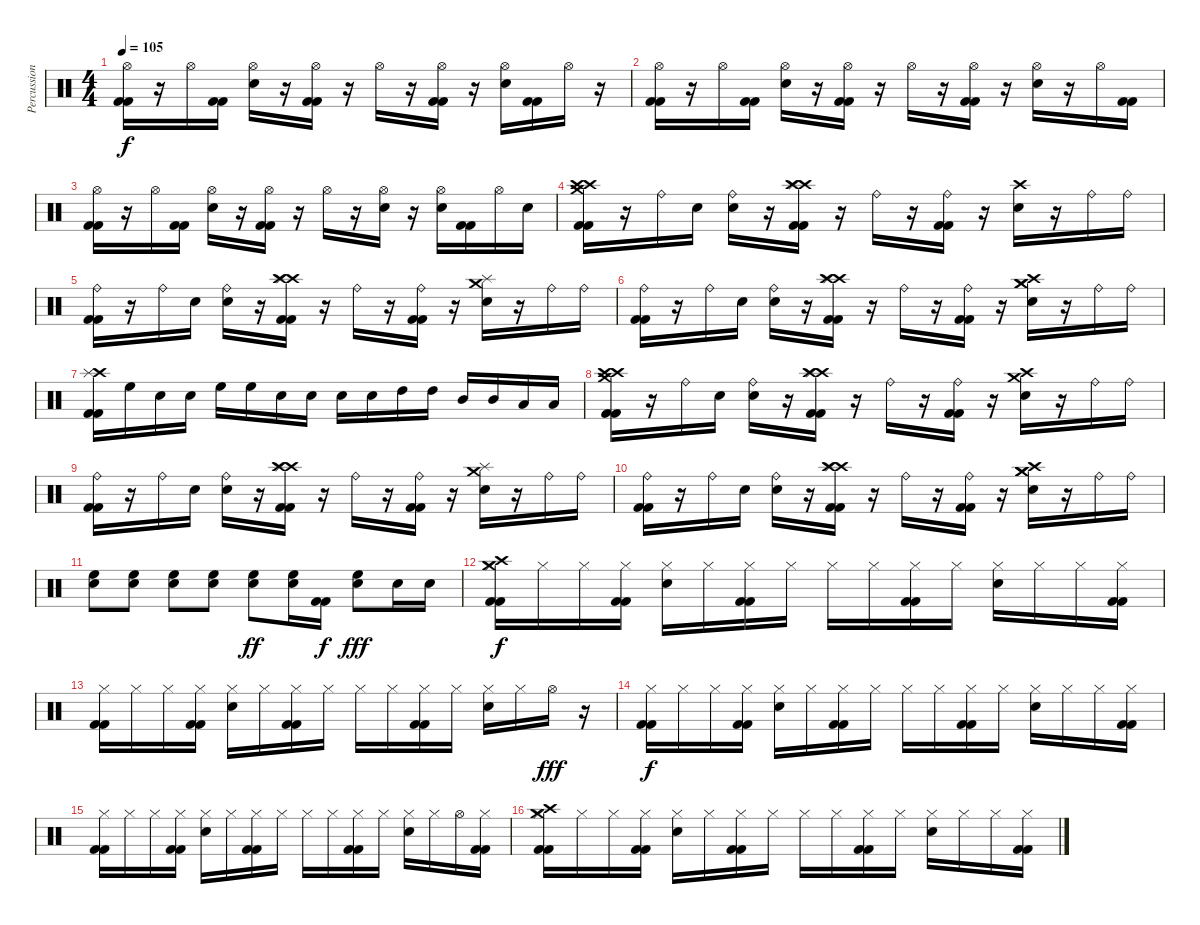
\track ("Percussion" "Percussion") {instrument percussion}
\staff {score}
\articulation defaults
\ts (4 4)
\tempo 105
\clef neutral
\ks c
("Hi-Hat (open)" "Kick (hit) 2" "Kick (hit) 2").16{dy f} r.16 "Hi-Hat (open)".16 ("Kick (hit) 2" "Kick (hit) 2").16 ("Hi-Hat (open)" "Electric Snare (hit)").16 r.16 ("Hi-Hat (open)" "Kick (hit) 2" "Kick (hit) 2").16 r.16 "Hi-Hat (open)".16 r.16 ("Hi-Hat (open)" "Kick (hit) 2" "Kick (hit) 2").16 r.16 ("Hi-Hat (open)" "Electric Snare (hit)").16 ("Kick (hit) 2" "Kick (hit) 2").16 "Hi-Hat (open)".16 r.16 |
("Hi-Hat (open)" "Kick (hit) 2" "Kick (hit) 2").16 r.16 "Hi-Hat (open)".16 ("Kick (hit) 2" "Kick (hit) 2").16 ("Hi-Hat (open)" "Electric Snare (hit)").16 r.16 ("Hi-Hat (open)" "Kick (hit) 2" "Kick (hit) 2").16 r.16 "Hi-Hat (open)".16 r.16 ("Hi-Hat (open)" "Kick (hit) 2" "Kick (hit) 2").16 r.16 ("Hi-Hat (open)" "Electric Snare (hit)").16 r.16 "Hi-Hat (open)".16 ("Kick (hit) 2" "Kick (hit) 2").16 |
("Hi-Hat (open)" "Kick (hit) 2" "Kick (hit) 2").16 r.16 "Hi-Hat (open)".16 ("Kick (hit) 2" "Kick (hit) 2").16 ("Hi-Hat (open)" "Electric Snare (hit)").16 r.16 ("Hi-Hat (open)" "Kick (hit) 2" "Kick (hit) 2").16 r.16 "Hi-Hat (open)".16 r.16 ("Hi-Hat (open)" "Electric Snare (hit)").16 r.16 ("Hi-Hat (open)" "Electric Snare (hit)").16 ("Kick (hit) 2" "Kick (hit) 2").16 "Hi-Hat (open)".16 "Electric Snare (hit)".16 |
("Crash high (hit)" "Crash high (hit)" "Crash medium (hit)" "Kick (hit) 2" "Kick (hit) 2").16 r.16 "Ride (bell)".16 "Electric Snare (hit)".16 ("Ride (bell)" "Electric Snare (hit)").16 r.16 ("Crash high (hit)" "Crash high (hit)" "Splash (hit)" "Kick (hit) 2" "Kick (hit) 2").16 r.16 "Ride (bell)".16 r.16 ("Ride (bell)" "Kick (hit) 2" "Kick (hit) 2").16 r.16 ("Crash high (hit)" "Electric Snare (hit)").16 r.16 "Ride (bell)".16 "Ride (bell)".16 |
("Ride (bell)" "Kick (hit) 2" "Kick (hit) 2").16 r.16 "Ride (bell)".16 "Electric Snare (hit)".16 ("Ride (bell)" "Electric Snare (hit)").16 r.16 ("Crash high (hit)" "Crash high (hit)" "Splash (hit)" "Kick (hit) 2" "Kick (hit) 2").16 r.16 "Ride (bell)".16 r.16 ("Ride (bell)" "Kick (hit) 2" "Kick (hit) 2").16 r.16 ("Crash medium (hit)" "Splash (hit)" "Electric Snare (hit)").16 r.16 "Ride (bell)".16 "Ride (bell)".16 |
("Ride (bell)" "Kick (hit) 2" "Kick (hit) 2").16 r.16 "Ride (bell)".16 "Electric Snare (hit)".16 ("Ride (bell)" "Electric Snare (hit)").16 r.16 ("Crash high (hit)" "Crash high (hit)" "Splash (hit)" "Kick (hit) 2" "Kick (hit) 2").16 r.16 "Ride (bell)".16 r.16 ("Ride (bell)" "Kick (hit) 2" "Kick (hit) 2").16 r.16 ("Crash high (hit)" "Crash medium (hit)" "Crash medium (hit)" "Electric Snare (hit)").16 r.16 "Ride (bell)".16 "Ride (bell)".16 |
("Crash high (hit)" "Splash (hit)" "Kick (hit) 2" "Kick (hit) 2").16 "High Floor Tom (hit)".16 "Electric Snare (hit)".16 "Electric Snare (hit)".16 "High Floor Tom (hit)".16 "High Floor Tom (hit)".16 "Electric Snare (hit)".16 "Electric Snare (hit)".16 "Electric Snare (hit)".16 "Electric Snare (hit)".16 "High Tom (hit)".16 "High Tom (hit)".16 "Mid Tom (hit)".16 "Mid Tom (hit)".16 "Low Tom (hit)".16 "Low Tom (hit)".16 |
("Crash high (hit)" "Crash high (hit)" "Crash medium (hit)" "Kick (hit) 2" "Kick (hit) 2").16 r.16 "Ride (bell)".16 "Electric Snare (hit)".16 ("Ride (bell)" "Electric Snare (hit)").16 r.16 ("Crash high (hit)" "Crash high (hit)" "Splash (hit)" "Kick (hit) 2" "Kick (hit) 2").16 r.16 "Ride (bell)".16 r.16 ("Ride (bell)" "Kick (hit) 2" "Kick (hit) 2").16 r.16 ("Crash high (hit)" "Crash medium (hit)" "Electric Snare (hit)").16 r.16 "Ride (bell)".16 "Ride (bell)".16 |
("Ride (bell)" "Kick (hit) 2" "Kick (hit) 2").16 r.16 "Ride (bell)".16 "Electric Snare (hit)".16 ("Ride (bell)" "Electric Snare (hit)").16 r.16 ("Crash high (hit)" "Crash high (hit)" "Splash (hit)" "Kick (hit) 2" "Kick (hit) 2").16 r.16 "Ride (bell)".16 r.16 ("Ride (bell)" "Kick (hit) 2" "Kick (hit) 2").16 r.16 ("Crash medium (hit)" "Splash (hit)" "Electric Snare (hit)").16 r.16 "Ride (bell)".16 "Ride (bell)".16 |
("Ride (bell)" "Kick (hit) 2" "Kick (hit) 2").16 r.16 "Ride (bell)".16 "Electric Snare (hit)".16 ("Ride (bell)" "Electric Snare (hit)").16 r.16 ("Crash high (hit)" "Crash high (hit)" "Splash (hit)" "Kick (hit) 2" "Kick (hit) 2").16 r.16 "Ride (bell)".16 r.16 ("Ride (bell)" "Kick (hit) 2" "Kick (hit) 2").16 r.16 ("Crash high (hit)" "Crash medium (hit)" "Crash medium (hit)" "Electric Snare (hit)").16 r.16 "Ride (bell)".16 "Ride (bell)".16 |
("High Floor Tom (hit)" "Electric Snare (hit)").8 ("High Floor Tom (hit)" "Electric Snare (hit)").8 ("High Floor Tom (hit)" "Electric Snare (hit)").8 ("High Floor Tom (hit)" "Electric Snare (hit)").8 ("High Floor Tom (hit)" "Electric Snare (hit)").8{dy ff} ("High Floor Tom (hit)" "Electric Snare (hit)").16 ("Kick (hit) 2" "Kick (hit) 2").16{dy f} ("High Floor Tom (hit)" "Electric Snare (hit)").8{dy fff} "Electric Snare (hit)".16 "Electric Snare (hit)".16 |
("Hi-Hat (closed)" "Crash high (hit)" "Crash medium (hit)" "Kick (hit) 2" "Kick (hit) 2").16{dy f} "Hi-Hat (closed)".16 "Hi-Hat (closed)".16 ("Hi-Hat (closed)" "Kick (hit) 2" "Kick (hit) 2").16 ("Hi-Hat (closed)" "Electric Snare (hit)").16 "Hi-Hat (closed)".16 ("Hi-Hat (closed)" "Kick (hit) 2" "Kick (hit) 2").16 "Hi-Hat (closed)".16 "Hi-Hat (closed)".16 "Hi-Hat (closed)".16 ("Hi-Hat (closed)" "Kick (hit) 2" "Kick (hit) 2").16 "Hi-Hat (closed)".16 ("Hi-Hat (closed)" "Electric Snare (hit)").16 "Hi-Hat (closed)".16 "Hi-Hat (closed)".16 ("Hi-Hat (closed)" "Kick (hit) 2" "Kick (hit) 2").16 |
("Hi-Hat (closed)" "Kick (hit) 2" "Kick (hit) 2").16 "Hi-Hat (closed)".16 "Hi-Hat (closed)".16 ("Hi-Hat (closed)" "Kick (hit) 2" "Kick (hit) 2").16 ("Hi-Hat (closed)" "Electric Snare (hit)").16 "Hi-Hat (closed)".16 ("Hi-Hat (closed)" "Kick (hit) 2" "Kick (hit) 2").16 "Hi-Hat (closed)".16 "Hi-Hat (closed)".16 "Hi-Hat (closed)".16 ("Hi-Hat (closed)" "Kick (hit) 2" "Kick (hit) 2").16 "Hi-Hat (closed)".16 ("Hi-Hat (closed)" "Electric Snare (hit)").16 "Hi-Hat (closed)".16 "Hi-Hat (open)".16{dy fff} r.16 |
("Hi-Hat (closed)" "Kick (hit) 2" "Kick (hit) 2").16{dy f} "Hi-Hat (closed)".16 "Hi-Hat (closed)".16 ("Hi-Hat (closed)" "Kick (hit) 2" "Kick (hit) 2").16 ("Hi-Hat (closed)" "Electric Snare (hit)").16 "Hi-Hat (closed)".16 ("Hi-Hat (closed)" "Kick (hit) 2" "Kick (hit) 2").16 "Hi-Hat (closed)".16 "Hi-Hat (closed)".16 "Hi-Hat (closed)".16 ("Hi-Hat (closed)" "Kick (hit) 2" "Kick (hit) 2").16 "Hi-Hat (closed)".16 ("Hi-Hat (closed)" "Electric Snare (hit)").16 "Hi-Hat (closed)".16 "Hi-Hat (closed)".16 ("Hi-Hat (closed)" "Kick (hit) 2" "Kick (hit) 2").16 |
("Hi-Hat (closed)" "Kick (hit) 2" "Kick (hit) 2").16 "Hi-Hat (closed)".16 "Hi-Hat (closed)".16 ("Hi-Hat (closed)" "Kick (hit) 2" "Kick (hit) 2").16 ("Hi-Hat (closed)" "Electric Snare (hit)").16 "Hi-Hat (closed)".16 ("Hi-Hat (closed)" "Kick (hit) 2" "Kick (hit) 2").16 "Hi-Hat (closed)".16 "Hi-Hat (closed)".16 "Hi-Hat (closed)".16 ("Hi-Hat (closed)" "Kick (hit) 2" "Kick (hit) 2").16 "Hi-Hat (closed)".16 ("Hi-Hat (closed)" "Electric Snare (hit)").16 "Hi-Hat (closed)".16 "Hi-Hat (open)".16 ("Hi-Hat (closed)" "Kick (hit) 2" "Kick (hit) 2").16 |
("Hi-Hat (closed)" "Crash high (hit)" "Crash medium (hit)" "Kick (hit) 2" "Kick (hit) 2").16 "Hi-Hat (closed)".16 "Hi-Hat (closed)".16 ("Hi-Hat (closed)" "Kick (hit) 2" "Kick (hit) 2").16 ("Hi-Hat (closed)" "Electric Snare (hit)").16 "Hi-Hat (closed)".16 ("Hi-Hat (closed)" "Kick (hit) 2" "Kick (hit) 2").16 "Hi-Hat (closed)".16 "Hi-Hat (closed)".16 "Hi-Hat (closed)".16 ("Hi-Hat (closed)" "Kick (hit) 2" "Kick (hit) 2").16 "Hi-Hat (closed)".16 ("Hi-Hat (closed)" "Electric Snare (hit)").16 "Hi-Hat (closed)".16 "Hi-Hat (closed)".16 ("Hi-Hat (closed)" "Kick (hit) 2" "Kick (hit) 2").16
